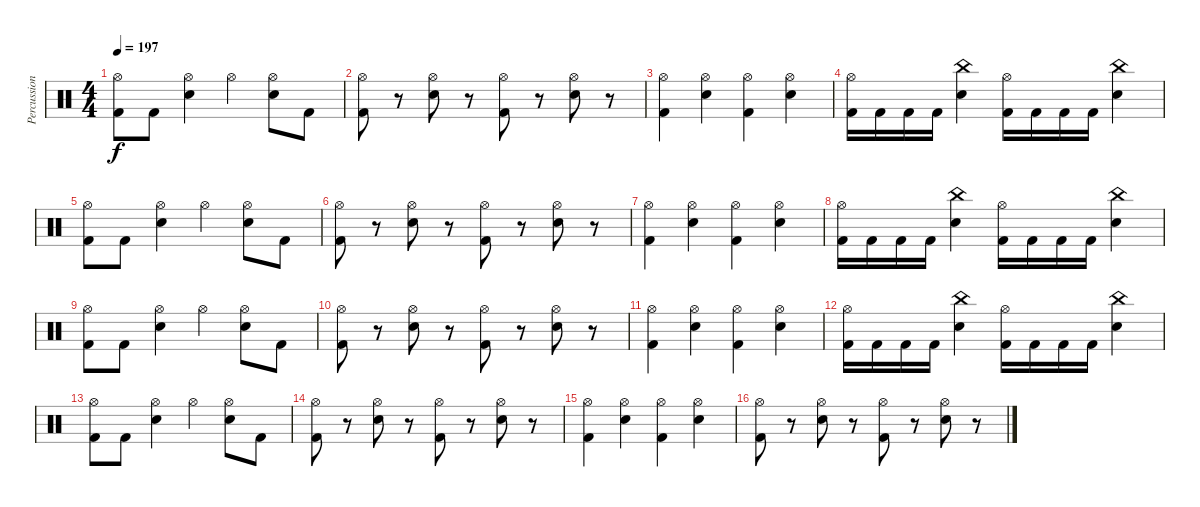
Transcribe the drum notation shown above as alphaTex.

\track ("Percussion" "Percussion") {instrument percussion}
\staff {score}
\articulation defaults
\ts (4 4)
\tempo 197
\clef neutral
\ks c
("Hi-Hat (open)" "Kick (hit) 2").8{dy f} "Kick (hit) 2".8 ("Hi-Hat (open)" "Electric Snare (hit)").4 "Hi-Hat (open)".4 ("Hi-Hat (open)" "Electric Snare (hit)").8 "Kick (hit) 2".8 |
("Hi-Hat (open)" "Kick (hit) 2").8 r.8 ("Hi-Hat (open)" "Electric Snare (hit)").8 r.8 ("Hi-Hat (open)" "Kick (hit) 2").8 r.8 ("Hi-Hat (open)" "Electric Snare (hit)").8 r.8 |
("Hi-Hat (open)" "Kick (hit) 2").4 ("Hi-Hat (open)" "Electric Snare (hit)").4 ("Hi-Hat (open)" "Kick (hit) 2").4 ("Hi-Hat (open)" "Electric Snare (hit)").4 |
("Hi-Hat (open)" "Kick (hit) 2").16 "Kick (hit) 2".16 "Kick (hit) 2".16 "Kick (hit) 2".16 ("China (hit)" "Electric Snare (hit)").4 ("Hi-Hat (open)" "Kick (hit) 2").16 "Kick (hit) 2".16 "Kick (hit) 2".16 "Kick (hit) 2".16 ("China (hit)" "Electric Snare (hit)").4 |
("Hi-Hat (open)" "Kick (hit) 2").8 "Kick (hit) 2".8 ("Hi-Hat (open)" "Electric Snare (hit)").4 "Hi-Hat (open)".4 ("Hi-Hat (open)" "Electric Snare (hit)").8 "Kick (hit) 2".8 |
("Hi-Hat (open)" "Kick (hit) 2").8 r.8 ("Hi-Hat (open)" "Electric Snare (hit)").8 r.8 ("Hi-Hat (open)" "Kick (hit) 2").8 r.8 ("Hi-Hat (open)" "Electric Snare (hit)").8 r.8 |
("Hi-Hat (open)" "Kick (hit) 2").4 ("Hi-Hat (open)" "Electric Snare (hit)").4 ("Hi-Hat (open)" "Kick (hit) 2").4 ("Hi-Hat (open)" "Electric Snare (hit)").4 |
("Hi-Hat (open)" "Kick (hit) 2").16 "Kick (hit) 2".16 "Kick (hit) 2".16 "Kick (hit) 2".16 ("China (hit)" "Electric Snare (hit)").4 ("Hi-Hat (open)" "Kick (hit) 2").16 "Kick (hit) 2".16 "Kick (hit) 2".16 "Kick (hit) 2".16 ("China (hit)" "Electric Snare (hit)").4 |
("Hi-Hat (open)" "Kick (hit) 2").8 "Kick (hit) 2".8 ("Hi-Hat (open)" "Electric Snare (hit)").4 "Hi-Hat (open)".4 ("Hi-Hat (open)" "Electric Snare (hit)").8 "Kick (hit) 2".8 |
("Hi-Hat (open)" "Kick (hit) 2").8 r.8 ("Hi-Hat (open)" "Electric Snare (hit)").8 r.8 ("Hi-Hat (open)" "Kick (hit) 2").8 r.8 ("Hi-Hat (open)" "Electric Snare (hit)").8 r.8 |
("Hi-Hat (open)" "Kick (hit) 2").4 ("Hi-Hat (open)" "Electric Snare (hit)").4 ("Hi-Hat (open)" "Kick (hit) 2").4 ("Hi-Hat (open)" "Electric Snare (hit)").4 |
("Hi-Hat (open)" "Kick (hit) 2").16 "Kick (hit) 2".16 "Kick (hit) 2".16 "Kick (hit) 2".16 ("China (hit)" "Electric Snare (hit)").4 ("Hi-Hat (open)" "Kick (hit) 2").16 "Kick (hit) 2".16 "Kick (hit) 2".16 "Kick (hit) 2".16 ("China (hit)" "Electric Snare (hit)").4 |
("Hi-Hat (open)" "Kick (hit) 2").8 "Kick (hit) 2".8 ("Hi-Hat (open)" "Electric Snare (hit)").4 "Hi-Hat (open)".4 ("Hi-Hat (open)" "Electric Snare (hit)").8 "Kick (hit) 2".8 |
("Hi-Hat (open)" "Kick (hit) 2").8 r.8 ("Hi-Hat (open)" "Electric Snare (hit)").8 r.8 ("Hi-Hat (open)" "Kick (hit) 2").8 r.8 ("Hi-Hat (open)" "Electric Snare (hit)").8 r.8 |
("Hi-Hat (open)" "Kick (hit) 2").4 ("Hi-Hat (open)" "Electric Snare (hit)").4 ("Hi-Hat (open)" "Kick (hit) 2").4 ("Hi-Hat (open)" "Electric Snare (hit)").4 |
("Hi-Hat (open)" "Kick (hit) 2").8 r.8 ("Hi-Hat (open)" "Electric Snare (hit)").8 r.8 ("Hi-Hat (open)" "Kick (hit) 2").8 r.8 ("Hi-Hat (open)" "Electric Snare (hit)").8 r.8
